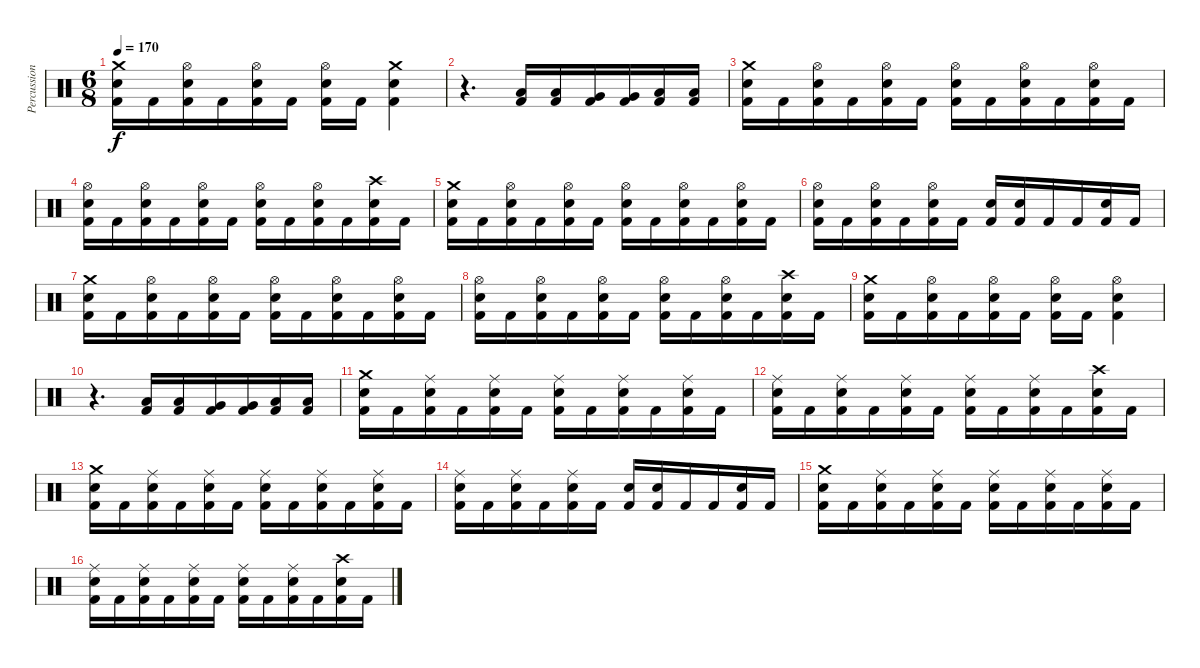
\track ("Percussions" "Percussion") {instrument percussion}
\staff {score}
\articulation defaults
\ts (6 8)
\tempo 170
\clef neutral
\ks c
("Crash medium (hit)" "Electric Snare (hit)" "Kick (hit) 2").16{dy f} "Kick (hit) 2".16 ("Hi-Hat (open)" "Electric Snare (hit)" "Kick (hit) 2").16 "Kick (hit) 2".16 ("Hi-Hat (open)" "Electric Snare (hit)" "Kick (hit) 2").16 "Kick (hit) 2".16 ("Hi-Hat (open)" "Electric Snare (hit)" "Kick (hit) 2").16 "Kick (hit) 2".16 ("Crash medium (hit)" "Electric Snare (hit)" "Kick (hit) 2").4 |
r.4{d} ("Low Tom (hit)" "Kick (hit) 2").16 ("Low Tom (hit)" "Kick (hit) 2").16 ("Very Low Tom (hit)" "Kick (hit) 2").16 ("Very Low Tom (hit)" "Kick (hit) 2").16 ("Low Floor Tom (hit)" "Kick (hit) 2").16 ("Low Floor Tom (hit)" "Kick (hit) 2").16 |
("Crash medium (hit)" "Electric Snare (hit)" "Kick (hit) 2").16 "Kick (hit) 2".16 ("Hi-Hat (open)" "Electric Snare (hit)" "Kick (hit) 2").16 "Kick (hit) 2".16 ("Hi-Hat (open)" "Electric Snare (hit)" "Kick (hit) 2").16 "Kick (hit) 2".16 ("Hi-Hat (open)" "Electric Snare (hit)" "Kick (hit) 2").16 "Kick (hit) 2".16 ("Hi-Hat (open)" "Electric Snare (hit)" "Kick (hit) 2").16 "Kick (hit) 2".16 ("Hi-Hat (open)" "Electric Snare (hit)" "Kick (hit) 2").16 "Kick (hit) 2".16 |
("Hi-Hat (open)" "Electric Snare (hit)" "Kick (hit) 2").16 "Kick (hit) 2".16 ("Hi-Hat (open)" "Electric Snare (hit)" "Kick (hit) 2").16 "Kick (hit) 2".16 ("Hi-Hat (open)" "Electric Snare (hit)" "Kick (hit) 2").16 "Kick (hit) 2".16 ("Hi-Hat (open)" "Electric Snare (hit)" "Kick (hit) 2").16 "Kick (hit) 2".16 ("Hi-Hat (open)" "Electric Snare (hit)" "Kick (hit) 2").16 "Kick (hit) 2".16 ("Crash high (hit)" "Electric Snare (hit)" "Kick (hit) 2").16 "Kick (hit) 2".16 |
("Crash medium (hit)" "Electric Snare (hit)" "Kick (hit) 2").16 "Kick (hit) 2".16 ("Hi-Hat (open)" "Electric Snare (hit)" "Kick (hit) 2").16 "Kick (hit) 2".16 ("Hi-Hat (open)" "Electric Snare (hit)" "Kick (hit) 2").16 "Kick (hit) 2".16 ("Hi-Hat (open)" "Electric Snare (hit)" "Kick (hit) 2").16 "Kick (hit) 2".16 ("Hi-Hat (open)" "Electric Snare (hit)" "Kick (hit) 2").16 "Kick (hit) 2".16 ("Hi-Hat (open)" "Electric Snare (hit)" "Kick (hit) 2").16 "Kick (hit) 2".16 |
("Hi-Hat (open)" "Electric Snare (hit)" "Kick (hit) 2").16 "Kick (hit) 2".16 ("Hi-Hat (open)" "Electric Snare (hit)" "Kick (hit) 2").16 "Kick (hit) 2".16 ("Hi-Hat (open)" "Electric Snare (hit)" "Kick (hit) 2").16 "Kick (hit) 2".16 ("Electric Snare (hit)" "Kick (hit) 2").16 ("Electric Snare (hit)" "Kick (hit) 2").16 "Kick (hit) 2".16 "Kick (hit) 2".16 ("Electric Snare (hit)" "Kick (hit) 2").16 "Kick (hit) 2".16 |
("Crash medium (hit)" "Electric Snare (hit)" "Kick (hit) 2").16 "Kick (hit) 2".16 ("Hi-Hat (open)" "Electric Snare (hit)" "Kick (hit) 2").16 "Kick (hit) 2".16 ("Hi-Hat (open)" "Electric Snare (hit)" "Kick (hit) 2").16 "Kick (hit) 2".16 ("Hi-Hat (open)" "Electric Snare (hit)" "Kick (hit) 2").16 "Kick (hit) 2".16 ("Hi-Hat (open)" "Electric Snare (hit)" "Kick (hit) 2").16 "Kick (hit) 2".16 ("Hi-Hat (open)" "Electric Snare (hit)" "Kick (hit) 2").16 "Kick (hit) 2".16 |
("Hi-Hat (open)" "Electric Snare (hit)" "Kick (hit) 2").16 "Kick (hit) 2".16 ("Hi-Hat (open)" "Electric Snare (hit)" "Kick (hit) 2").16 "Kick (hit) 2".16 ("Hi-Hat (open)" "Electric Snare (hit)" "Kick (hit) 2").16 "Kick (hit) 2".16 ("Hi-Hat (open)" "Electric Snare (hit)" "Kick (hit) 2").16 "Kick (hit) 2".16 ("Hi-Hat (open)" "Electric Snare (hit)" "Kick (hit) 2").16 "Kick (hit) 2".16 ("Crash high (hit)" "Electric Snare (hit)" "Kick (hit) 2").16 "Kick (hit) 2".16 |
("Crash medium (hit)" "Electric Snare (hit)" "Kick (hit) 2").16 "Kick (hit) 2".16 ("Hi-Hat (open)" "Electric Snare (hit)" "Kick (hit) 2").16 "Kick (hit) 2".16 ("Hi-Hat (open)" "Electric Snare (hit)" "Kick (hit) 2").16 "Kick (hit) 2".16 ("Hi-Hat (open)" "Electric Snare (hit)" "Kick (hit) 2").16 "Kick (hit) 2".16 ("Hi-Hat (open)" "Electric Snare (hit)" "Kick (hit) 2").4 |
r.4{d} ("Low Tom (hit)" "Kick (hit) 2").16 ("Low Tom (hit)" "Kick (hit) 2").16 ("Very Low Tom (hit)" "Kick (hit) 2").16 ("Very Low Tom (hit)" "Kick (hit) 2").16 ("Low Floor Tom (hit)" "Kick (hit) 2").16 ("Low Floor Tom (hit)" "Kick (hit) 2").16 |
("Crash medium (hit)" "Electric Snare (hit)" "Kick (hit) 2").16 "Kick (hit) 2".16 ("Ride (middle)" "Electric Snare (hit)" "Kick (hit) 2").16 "Kick (hit) 2".16 ("Ride (middle)" "Electric Snare (hit)" "Kick (hit) 2").16 "Kick (hit) 2".16 ("Ride (middle)" "Electric Snare (hit)" "Kick (hit) 2").16 "Kick (hit) 2".16 ("Ride (middle)" "Electric Snare (hit)" "Kick (hit) 2").16 "Kick (hit) 2".16 ("Ride (middle)" "Electric Snare (hit)" "Kick (hit) 2").16 "Kick (hit) 2".16 |
("Ride (middle)" "Electric Snare (hit)" "Kick (hit) 2").16 "Kick (hit) 2".16 ("Ride (middle)" "Electric Snare (hit)" "Kick (hit) 2").16 "Kick (hit) 2".16 ("Ride (middle)" "Electric Snare (hit)" "Kick (hit) 2").16 "Kick (hit) 2".16 ("Ride (middle)" "Electric Snare (hit)" "Kick (hit) 2").16 "Kick (hit) 2".16 ("Ride (middle)" "Electric Snare (hit)" "Kick (hit) 2").16 "Kick (hit) 2".16 ("Crash high (hit)" "Electric Snare (hit)" "Kick (hit) 2").16 "Kick (hit) 2".16 |
("Crash medium (hit)" "Electric Snare (hit)" "Kick (hit) 2").16 "Kick (hit) 2".16 ("Ride (middle)" "Electric Snare (hit)" "Kick (hit) 2").16 "Kick (hit) 2".16 ("Ride (middle)" "Electric Snare (hit)" "Kick (hit) 2").16 "Kick (hit) 2".16 ("Ride (middle)" "Electric Snare (hit)" "Kick (hit) 2").16 "Kick (hit) 2".16 ("Ride (middle)" "Electric Snare (hit)" "Kick (hit) 2").16 "Kick (hit) 2".16 ("Ride (middle)" "Electric Snare (hit)" "Kick (hit) 2").16 "Kick (hit) 2".16 |
("Ride (middle)" "Electric Snare (hit)" "Kick (hit) 2").16 "Kick (hit) 2".16 ("Ride (middle)" "Electric Snare (hit)" "Kick (hit) 2").16 "Kick (hit) 2".16 ("Ride (middle)" "Electric Snare (hit)" "Kick (hit) 2").16 "Kick (hit) 2".16 ("Electric Snare (hit)" "Kick (hit) 2").16 ("Electric Snare (hit)" "Kick (hit) 2").16 "Kick (hit) 2".16 "Kick (hit) 2".16 ("Electric Snare (hit)" "Kick (hit) 2").16 "Kick (hit) 2".16 |
("Crash medium (hit)" "Electric Snare (hit)" "Kick (hit) 2").16 "Kick (hit) 2".16 ("Ride (middle)" "Electric Snare (hit)" "Kick (hit) 2").16 "Kick (hit) 2".16 ("Ride (middle)" "Electric Snare (hit)" "Kick (hit) 2").16 "Kick (hit) 2".16 ("Ride (middle)" "Electric Snare (hit)" "Kick (hit) 2").16 "Kick (hit) 2".16 ("Ride (middle)" "Electric Snare (hit)" "Kick (hit) 2").16 "Kick (hit) 2".16 ("Ride (middle)" "Electric Snare (hit)" "Kick (hit) 2").16 "Kick (hit) 2".16 |
("Ride (middle)" "Electric Snare (hit)" "Kick (hit) 2").16 "Kick (hit) 2".16 ("Ride (middle)" "Electric Snare (hit)" "Kick (hit) 2").16 "Kick (hit) 2".16 ("Ride (middle)" "Electric Snare (hit)" "Kick (hit) 2").16 "Kick (hit) 2".16 ("Ride (middle)" "Electric Snare (hit)" "Kick (hit) 2").16 "Kick (hit) 2".16 ("Ride (middle)" "Electric Snare (hit)" "Kick (hit) 2").16 "Kick (hit) 2".16 ("Crash high (hit)" "Electric Snare (hit)" "Kick (hit) 2").16 "Kick (hit) 2".16
